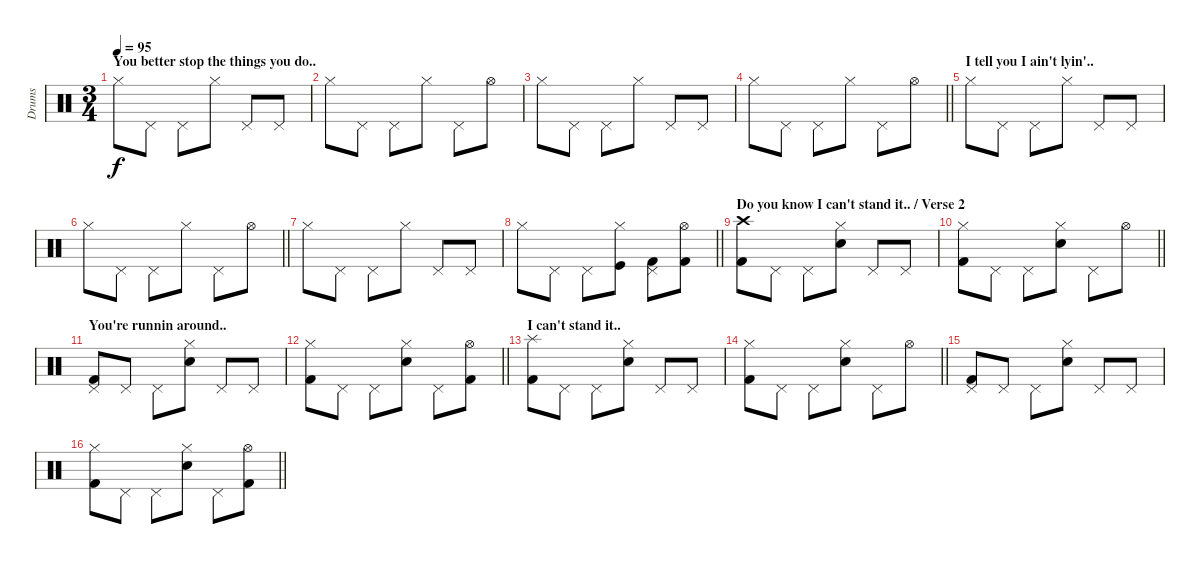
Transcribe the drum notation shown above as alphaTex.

\track ("Drums" "Drums") {instrument percussion}
\staff {score}
\articulation defaults
\ts (3 4)
\section ("" "You better stop the things you do..")
\tempo 95
\clef neutral
\ks c "Hi-Hat (closed)".8{dy f} "Pedal Hi-Hat (hit)".8 "Pedal Hi-Hat (hit)".8 "Hi-Hat (closed)".8 "Pedal Hi-Hat (hit)".8 "Pedal Hi-Hat (hit)".8
|
"Hi-Hat (closed)".8 "Pedal Hi-Hat (hit)".8 "Pedal Hi-Hat (hit)".8 "Hi-Hat (closed)".8 "Pedal Hi-Hat (hit)".8 "Hi-Hat (open)".8 |
"Hi-Hat (closed)".8 "Pedal Hi-Hat (hit)".8 "Pedal Hi-Hat (hit)".8 "Hi-Hat (closed)".8 "Pedal Hi-Hat (hit)".8 "Pedal Hi-Hat (hit)".8 |
\barLineRight lightlight "Hi-Hat (closed)".8 "Pedal Hi-Hat (hit)".8 "Pedal Hi-Hat (hit)".8 "Hi-Hat (closed)".8 "Pedal Hi-Hat (hit)".8 "Hi-Hat (open)".8
|
\section ("" "I tell you I ain't lyin'..")
"Hi-Hat (closed)".8 "Pedal Hi-Hat (hit)".8 "Pedal Hi-Hat (hit)".8 "Hi-Hat (closed)".8 "Pedal Hi-Hat (hit)".8 "Pedal Hi-Hat (hit)".8 |
\barLineRight lightlight "Hi-Hat (closed)".8 "Pedal Hi-Hat (hit)".8 "Pedal Hi-Hat (hit)".8 "Hi-Hat (closed)".8 "Pedal Hi-Hat (hit)".8 "Hi-Hat (open)".8
|
"Hi-Hat (closed)".8 "Pedal Hi-Hat (hit)".8 "Pedal Hi-Hat (hit)".8 "Hi-Hat (closed)".8 "Pedal Hi-Hat (hit)".8 "Pedal Hi-Hat (hit)".8 |
\barLineRight lightlight "Hi-Hat (closed)".8 "Pedal Hi-Hat (hit)".8 "Pedal Hi-Hat (hit)".8
("Hi-Hat (closed)" "Kick (hit)").8 ("Pedal Hi-Hat (hit)" "Kick (hit) 2").8 ("Hi-Hat (open)" "Kick (hit) 2").8 |
\section ("" "Do you know I can't stand it.. / Verse 2")
("Crash high (hit)" "Kick (hit) 2").8 "Pedal Hi-Hat (hit)".8 "Pedal Hi-Hat (hit)".8 ("Hi-Hat (closed)" "Snare (hit) 2").8 "Pedal Hi-Hat (hit)".8 "Pedal Hi-Hat (hit)".8 |
\barLineRight lightlight
("Hi-Hat (closed)" "Kick (hit) 2").8 "Pedal Hi-Hat (hit)".8 "Pedal Hi-Hat (hit)".8 ("Hi-Hat (closed)" "Snare (hit) 2").8 "Pedal Hi-Hat (hit)".8 "Hi-Hat (open)".8 |
\section ("" "You're runnin around..")
("Pedal Hi-Hat (hit)" "Kick (hit) 2").8 "Pedal Hi-Hat (hit)".8 "Pedal Hi-Hat (hit)".8 ("Hi-Hat (closed)" "Snare (hit) 2").8 "Pedal Hi-Hat (hit)".8 "Pedal Hi-Hat (hit)".8 |
\barLineRight lightlight
("Hi-Hat (closed)" "Kick (hit) 2").8 "Pedal Hi-Hat (hit)".8 "Pedal Hi-Hat (hit)".8 ("Hi-Hat (closed)" "Snare (hit) 2").8 "Pedal Hi-Hat (hit)".8 ("Hi-Hat (open)" "Kick (hit) 2").8 |
\section ("" "I can't stand it..")
("Splash (hit)" "Kick (hit) 2").8 "Pedal Hi-Hat (hit)".8 "Pedal Hi-Hat (hit)".8 ("Hi-Hat (closed)" "Snare (hit) 2").8 "Pedal Hi-Hat (hit)".8 "Pedal Hi-Hat (hit)".8 |
\barLineRight lightlight
("Hi-Hat (closed)" "Kick (hit) 2").8 "Pedal Hi-Hat (hit)".8 "Pedal Hi-Hat (hit)".8 ("Hi-Hat (closed)" "Snare (hit) 2").8 "Pedal Hi-Hat (hit)".8 "Hi-Hat (open)".8 |
("Pedal Hi-Hat (hit)" "Kick (hit) 2").8 "Pedal Hi-Hat (hit)".8 "Pedal Hi-Hat (hit)".8 ("Hi-Hat (closed)" "Snare (hit) 2").8 "Pedal Hi-Hat (hit)".8 "Pedal Hi-Hat (hit)".8 |
\barLineRight lightlight
("Hi-Hat (closed)" "Kick (hit) 2").8 "Pedal Hi-Hat (hit)".8 "Pedal Hi-Hat (hit)".8 ("Hi-Hat (closed)" "Snare (hit) 2").8 "Pedal Hi-Hat (hit)".8 ("Hi-Hat (open)" "Kick (hit) 2").8
